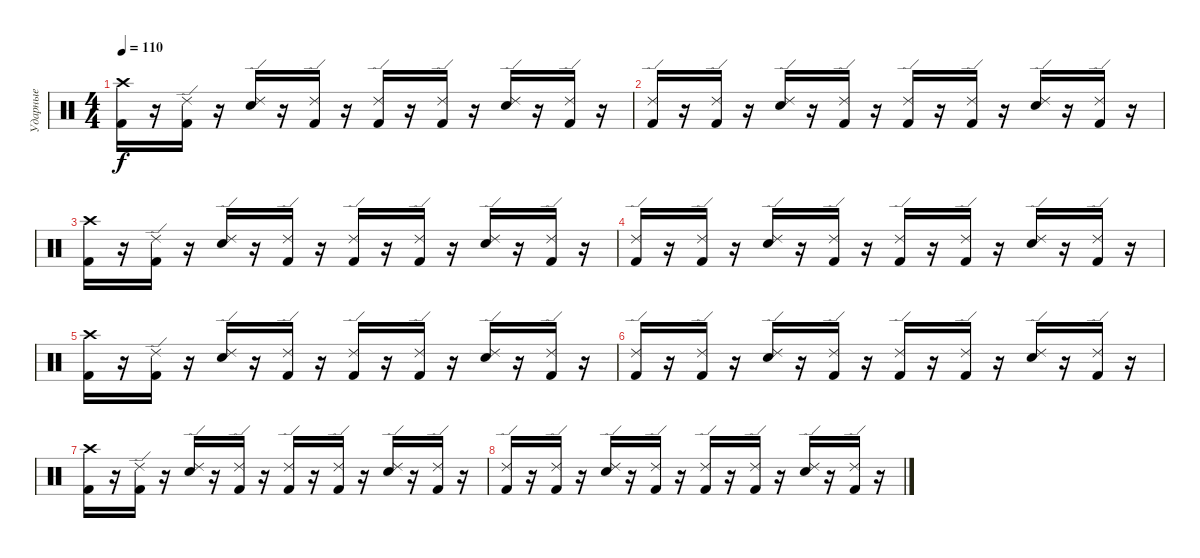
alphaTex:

\track ("Ударные" "Ударные") {instrument percussion}
\staff {score}
\articulation defaults
\ts (4 4)
\tempo 110
\clef neutral
\ks c
("Crash high (hit)" "Kick (hit) 2").16{dy f} r.16 ("Ride (edge) 2" "Kick (hit) 2").16 r.16 ("Ride (edge) 2" "Electric Snare (hit)").16 r.16 ("Ride (edge) 2" "Kick (hit) 2").16 r.16 ("Ride (edge) 2" "Kick (hit) 2").16 r.16 ("Ride (edge) 2" "Kick (hit) 2").16 r.16 ("Ride (edge) 2" "Electric Snare (hit)").16 r.16 ("Ride (edge) 2" "Kick (hit) 2").16 r.16 |
("Ride (edge) 2" "Kick (hit) 2").16 r.16 ("Ride (edge) 2" "Kick (hit) 2").16 r.16 ("Ride (edge) 2" "Electric Snare (hit)").16 r.16 ("Ride (edge) 2" "Kick (hit) 2").16 r.16 ("Ride (edge) 2" "Kick (hit) 2").16 r.16 ("Ride (edge) 2" "Kick (hit) 2").16 r.16 ("Ride (edge) 2" "Electric Snare (hit)").16 r.16 ("Ride (edge) 2" "Kick (hit) 2").16 r.16 |
("Crash high (hit)" "Kick (hit) 2").16 r.16 ("Ride (edge) 2" "Kick (hit) 2").16 r.16 ("Ride (edge) 2" "Electric Snare (hit)").16 r.16 ("Ride (edge) 2" "Kick (hit) 2").16 r.16 ("Ride (edge) 2" "Kick (hit) 2").16 r.16 ("Ride (edge) 2" "Kick (hit) 2").16 r.16 ("Ride (edge) 2" "Electric Snare (hit)").16 r.16 ("Ride (edge) 2" "Kick (hit) 2").16 r.16 |
("Ride (edge) 2" "Kick (hit) 2").16 r.16 ("Ride (edge) 2" "Kick (hit) 2").16 r.16 ("Ride (edge) 2" "Electric Snare (hit)").16 r.16 ("Ride (edge) 2" "Kick (hit) 2").16 r.16 ("Ride (edge) 2" "Kick (hit) 2").16 r.16 ("Ride (edge) 2" "Kick (hit) 2").16 r.16 ("Ride (edge) 2" "Electric Snare (hit)").16 r.16 ("Ride (edge) 2" "Kick (hit) 2").16 r.16 |
("Crash high (hit)" "Kick (hit) 2").16 r.16 ("Ride (edge) 2" "Kick (hit) 2").16 r.16 ("Ride (edge) 2" "Electric Snare (hit)").16 r.16 ("Ride (edge) 2" "Kick (hit) 2").16 r.16 ("Ride (edge) 2" "Kick (hit) 2").16 r.16 ("Ride (edge) 2" "Kick (hit) 2").16 r.16 ("Ride (edge) 2" "Electric Snare (hit)").16 r.16 ("Ride (edge) 2" "Kick (hit) 2").16 r.16 |
("Ride (edge) 2" "Kick (hit) 2").16 r.16 ("Ride (edge) 2" "Kick (hit) 2").16 r.16 ("Ride (edge) 2" "Electric Snare (hit)").16 r.16 ("Ride (edge) 2" "Kick (hit) 2").16 r.16 ("Ride (edge) 2" "Kick (hit) 2").16 r.16 ("Ride (edge) 2" "Kick (hit) 2").16 r.16 ("Ride (edge) 2" "Electric Snare (hit)").16 r.16 ("Ride (edge) 2" "Kick (hit) 2").16 r.16 |
("Crash high (hit)" "Kick (hit) 2").16 r.16 ("Ride (edge) 2" "Kick (hit) 2").16 r.16 ("Ride (edge) 2" "Electric Snare (hit)").16 r.16 ("Ride (edge) 2" "Kick (hit) 2").16 r.16 ("Ride (edge) 2" "Kick (hit) 2").16 r.16 ("Ride (edge) 2" "Kick (hit) 2").16 r.16 ("Ride (edge) 2" "Electric Snare (hit)").16 r.16 ("Ride (edge) 2" "Kick (hit) 2").16 r.16 |
("Ride (edge) 2" "Kick (hit) 2").16 r.16 ("Ride (edge) 2" "Kick (hit) 2").16 r.16 ("Ride (edge) 2" "Electric Snare (hit)").16 r.16 ("Ride (edge) 2" "Kick (hit) 2").16 r.16 ("Ride (edge) 2" "Kick (hit) 2").16 r.16 ("Ride (edge) 2" "Kick (hit) 2").16 r.16 ("Ride (edge) 2" "Electric Snare (hit)").16 r.16 ("Ride (edge) 2" "Kick (hit) 2").16 r.16
